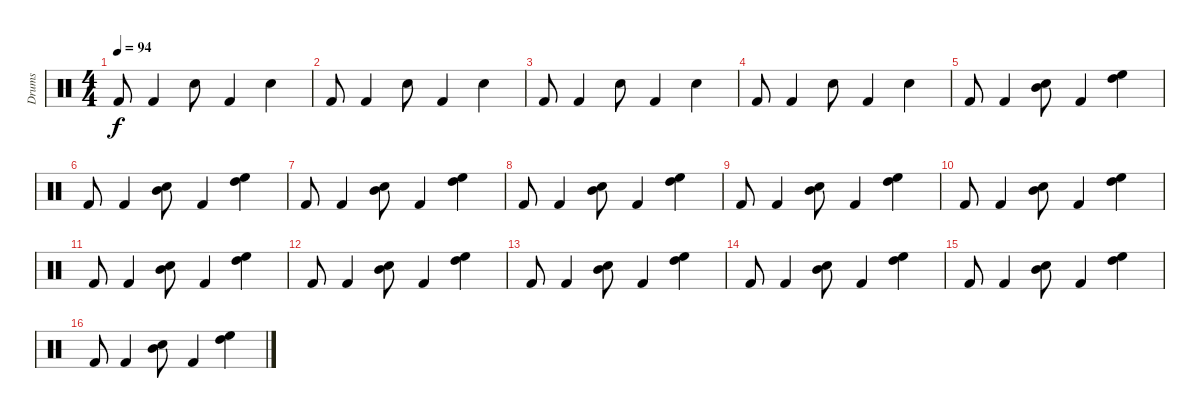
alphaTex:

\track ("Drums" "Drums") {instrument percussion}
\staff {score}
\articulation defaults
\ts (4 4)
\tempo 94
\clef neutral
\ks c "Kick (hit) 2".8{dy f} "Kick (hit) 2".4 "Electric Snare (hit)".8 "Kick (hit) 2".4 "Electric Snare (hit)".4
|
"Kick (hit) 2".8 "Kick (hit) 2".4 "Electric Snare (hit)".8 "Kick (hit) 2".4 "Electric Snare (hit)".4 |
"Kick (hit) 2".8 "Kick (hit) 2".4 "Electric Snare (hit)".8 "Kick (hit) 2".4 "Electric Snare (hit)".4 |
"Kick (hit) 2".8 "Kick (hit) 2".4 "Electric Snare (hit)".8 "Kick (hit) 2".4 "Electric Snare (hit)".4 |
"Kick (hit) 2".8 "Kick (hit) 2".4 ("Mid Tom (hit)" "Electric Snare (hit)").8 "Kick (hit) 2".4 ("High Tom (hit)" "High Floor Tom (hit)").4 |
"Kick (hit) 2".8 "Kick (hit) 2".4 ("Mid Tom (hit)" "Electric Snare (hit)").8 "Kick (hit) 2".4 ("High Tom (hit)" "High Floor Tom (hit)").4 |
"Kick (hit) 2".8 "Kick (hit) 2".4 ("Mid Tom (hit)" "Electric Snare (hit)").8 "Kick (hit) 2".4 ("High Tom (hit)" "High Floor Tom (hit)").4 |
"Kick (hit) 2".8 "Kick (hit) 2".4 ("Mid Tom (hit)" "Electric Snare (hit)").8 "Kick (hit) 2".4 ("High Tom (hit)" "High Floor Tom (hit)").4 |
"Kick (hit) 2".8 "Kick (hit) 2".4 ("Mid Tom (hit)" "Electric Snare (hit)").8 "Kick (hit) 2".4 ("High Tom (hit)" "High Floor Tom (hit)").4 |
"Kick (hit) 2".8 "Kick (hit) 2".4 ("Mid Tom (hit)" "Electric Snare (hit)").8 "Kick (hit) 2".4 ("High Tom (hit)" "High Floor Tom (hit)").4 |
"Kick (hit) 2".8 "Kick (hit) 2".4 ("Mid Tom (hit)" "Electric Snare (hit)").8 "Kick (hit) 2".4 ("High Tom (hit)" "High Floor Tom (hit)").4 |
"Kick (hit) 2".8 "Kick (hit) 2".4 ("Mid Tom (hit)" "Electric Snare (hit)").8 "Kick (hit) 2".4 ("High Tom (hit)" "High Floor Tom (hit)").4 |
"Kick (hit) 2".8 "Kick (hit) 2".4 ("Mid Tom (hit)" "Electric Snare (hit)").8 "Kick (hit) 2".4 ("High Tom (hit)" "High Floor Tom (hit)").4 |
"Kick (hit) 2".8 "Kick (hit) 2".4 ("Mid Tom (hit)" "Electric Snare (hit)").8 "Kick (hit) 2".4 ("High Tom (hit)" "High Floor Tom (hit)").4 |
"Kick (hit) 2".8 "Kick (hit) 2".4 ("Mid Tom (hit)" "Electric Snare (hit)").8 "Kick (hit) 2".4 ("High Tom (hit)" "High Floor Tom (hit)").4 |
"Kick (hit) 2".8 "Kick (hit) 2".4 ("Mid Tom (hit)" "Electric Snare (hit)").8 "Kick (hit) 2".4 ("High Tom (hit)" "High Floor Tom (hit)").4
